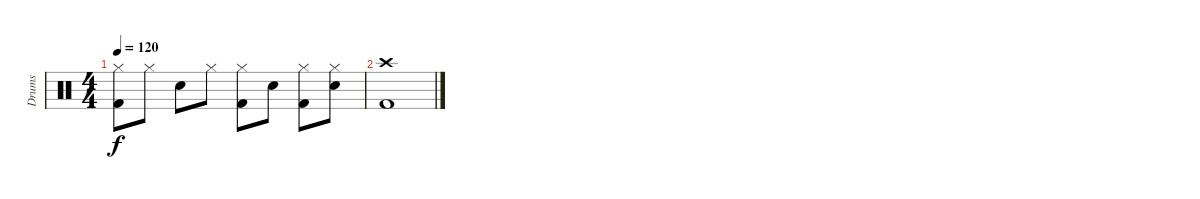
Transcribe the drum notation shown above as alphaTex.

\track ("Drums" "Drums") {instrument percussion}
\staff {score}
\articulation defaults
\ts (4 4)
\tempo 120
\clef neutral
\ks c
("Kick (hit) 2" "Hi-Hat (closed)").8{dy f} "Hi-Hat (closed)".8 "Snare (hit) 2".8 "Hi-Hat (closed)".8 ("Kick (hit) 2" "Hi-Hat (closed)").8 "Snare (hit) 2".8 ("Kick (hit) 2" "Hi-Hat (closed)").8 ("Snare (hit) 2" "Hi-Hat (closed)").8 |
("Kick (hit) 2" "Crash high (hit)").1
